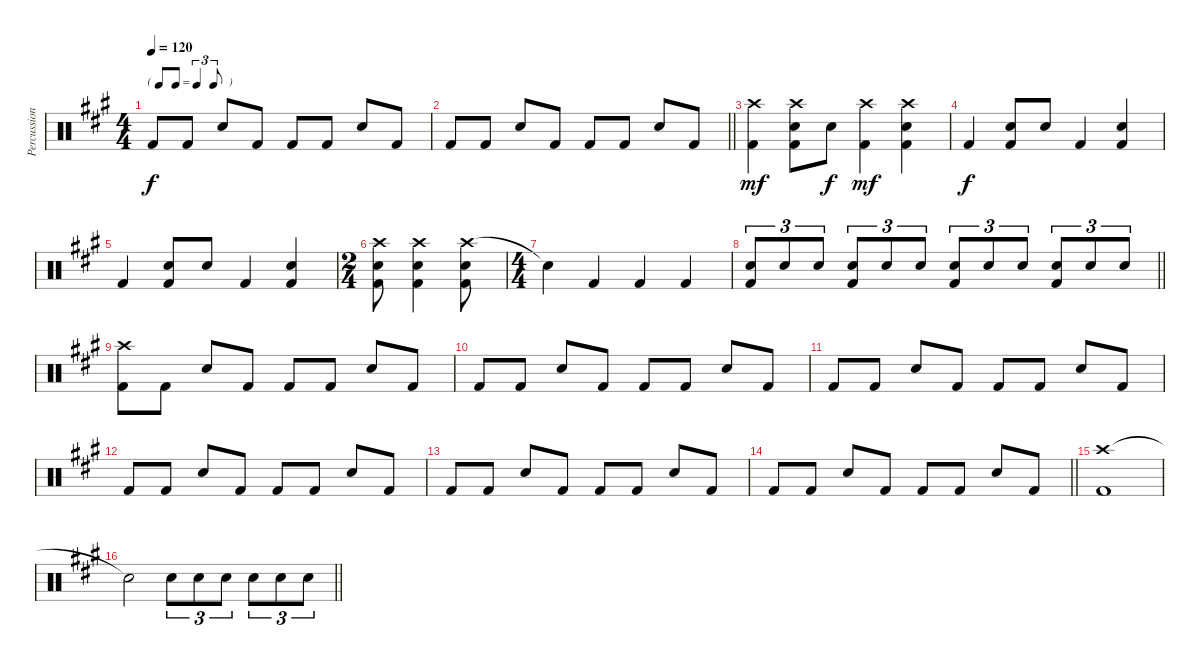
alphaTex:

\track ("Percussion" "Percussion") {instrument percussion}
\staff {score}
\articulation defaults
\ts (4 4)
\tf triplet8th
\tempo 120
\clef neutral
\ks a "Kick (hit) 2".8{dy f} "Kick (hit) 2".8 "Snare (hit) 2".8 "Kick (hit) 2".8 "Kick (hit) 2".8 "Kick (hit) 2".8 "Snare (hit) 2".8 "Kick (hit) 2".8
|
\barLineRight lightlight "Kick (hit) 2".8 "Kick (hit) 2".8 "Snare (hit) 2".8 "Kick (hit) 2".8 "Kick (hit) 2".8 "Kick (hit) 2".8 "Snare (hit) 2".8 "Kick (hit) 2".8
|
("Crash high (hit)" "Kick (hit) 2").4{dy mf} ("Crash high (hit)" "Snare (hit) 2" "Kick (hit) 2").8 "Snare (hit) 2".8{dy f} ("Crash high (hit)" "Kick (hit) 2").4{dy mf} ("Crash high (hit)" "Snare (hit) 2" "Kick (hit) 2").4 |
"Kick (hit) 2".4{dy f} ("Snare (hit) 2" "Kick (hit) 2").8 "Snare (hit) 2".8 "Kick (hit) 2".4 ("Snare (hit) 2" "Kick (hit) 2").4 |
"Kick (hit) 2".4 ("Snare (hit) 2" "Kick (hit) 2").8 "Snare (hit) 2".8 "Kick (hit) 2".4 ("Snare (hit) 2" "Kick (hit) 2").4 |
\ts (2 4)
("Crash high (hit)" "Snare (hit) 2" "Kick (hit) 2").8 ("Crash high (hit)" "Snare (hit) 2" "Kick (hit) 2").4 ("Crash high (hit)" "Snare (hit) 2" "Kick (hit) 2").8 |
\ts (4 4)
"Snare (hit)"{t}.4 "Kick (hit) 2".4 "Kick (hit) 2".4 "Kick (hit) 2".4 |
\barLineRight lightlight
("Snare (hit) 2" "Kick (hit) 2").8{tu (3 2)} "Snare (hit) 2".8{tu (3 2)} "Snare (hit) 2".8{tu (3 2)} ("Snare (hit) 2" "Kick (hit) 2").8{tu (3 2)} "Snare (hit) 2".8{tu (3 2)} "Snare (hit) 2".8{tu (3 2)} ("Snare (hit) 2" "Kick (hit) 2").8{tu (3 2)} "Snare (hit) 2".8{tu (3 2)} "Snare (hit) 2".8{tu (3 2)} ("Snare (hit) 2" "Kick (hit) 2").8{tu (3 2)} "Snare (hit) 2".8{tu (3 2)} "Snare (hit) 2".8{tu (3 2)} |
("Crash high (hit)" "Kick (hit) 2").8 "Kick (hit) 2".8 "Snare (hit) 2".8 "Kick (hit) 2".8 "Kick (hit) 2".8 "Kick (hit) 2".8 "Snare (hit) 2".8 "Kick (hit) 2".8 |
"Kick (hit) 2".8 "Kick (hit) 2".8 "Snare (hit) 2".8 "Kick (hit) 2".8 "Kick (hit) 2".8 "Kick (hit) 2".8 "Snare (hit) 2".8 "Kick (hit) 2".8 |
"Kick (hit) 2".8 "Kick (hit) 2".8 "Snare (hit) 2".8 "Kick (hit) 2".8 "Kick (hit) 2".8 "Kick (hit) 2".8 "Snare (hit) 2".8 "Kick (hit) 2".8 |
"Kick (hit) 2".8 "Kick (hit) 2".8 "Snare (hit) 2".8 "Kick (hit) 2".8 "Kick (hit) 2".8 "Kick (hit) 2".8 "Snare (hit) 2".8 "Kick (hit) 2".8 |
"Kick (hit) 2".8 "Kick (hit) 2".8 "Snare (hit) 2".8 "Kick (hit) 2".8 "Kick (hit) 2".8 "Kick (hit) 2".8 "Snare (hit) 2".8 "Kick (hit) 2".8 |
\barLineRight lightlight "Kick (hit) 2".8 "Kick (hit) 2".8 "Snare (hit) 2".8 "Kick (hit) 2".8 "Kick (hit) 2".8 "Kick (hit) 2".8 "Snare (hit) 2".8 "Kick (hit) 2".8
|
("Crash high (hit)" "Kick (hit) 2").1 |
\barLineRight lightlight "Snare (hit)"{t}.2 "Snare (hit) 2".8{tu (3 2)} "Snare (hit) 2".8{tu (3 2)} "Snare (hit) 2".8{tu (3 2)} "Snare (hit) 2".8{tu (3 2)} "Snare (hit) 2".8{tu (3 2)} "Snare (hit) 2".8{tu (3 2)}
